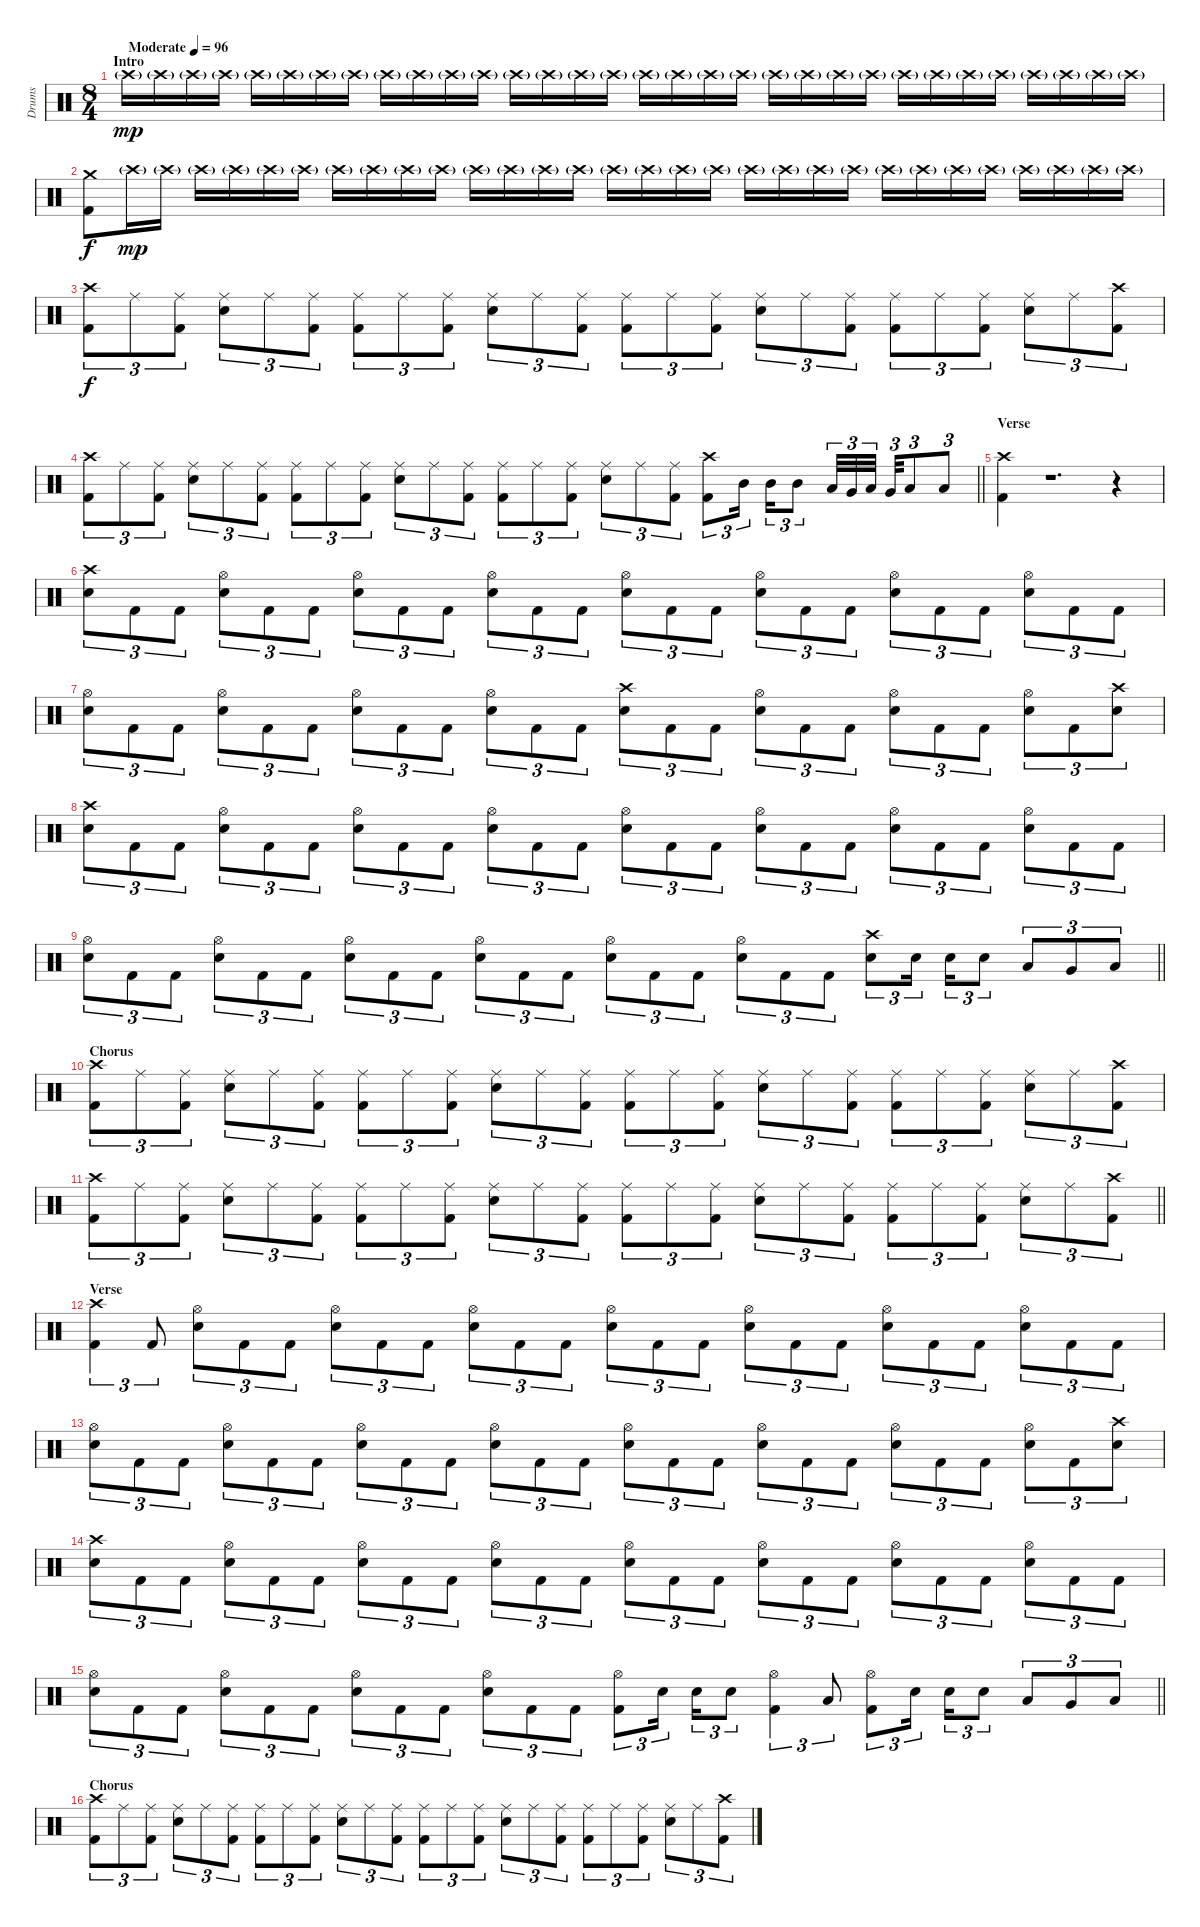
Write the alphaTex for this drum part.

\track ("Drums" "Drums") {instrument percussion}
\staff {score}
\articulation defaults
\ts (8 4)
\section ("" "Intro")
\tempo (96 "Moderate")
\clef neutral
\ks c "Crash high (hit)"{g}.16{dy mp} "Crash high (hit)"{g}.16 "Crash high (hit)"{g}.16 "Crash high (hit)"{g}.16 "Crash high (hit)"{g}.16 "Crash high (hit)"{g}.16 "Crash high (hit)"{g}.16 "Crash high (hit)"{g}.16 "Crash high (hit)"{g}.16 "Crash high (hit)"{g}.16 "Crash high (hit)"{g}.16 "Crash high (hit)"{g}.16 "Crash high (hit)"{g}.16 "Crash high (hit)"{g}.16 "Crash high (hit)"{g}.16 "Crash high (hit)"{g}.16 "Crash high (hit)"{g}.16 "Crash high (hit)"{g}.16 "Crash high (hit)"{g}.16 "Crash high (hit)"{g}.16 "Crash high (hit)"{g}.16 "Crash high (hit)"{g}.16 "Crash high (hit)"{g}.16 "Crash high (hit)"{g}.16 "Crash high (hit)"{g}.16 "Crash high (hit)"{g}.16 "Crash high (hit)"{g}.16 "Crash high (hit)"{g}.16 "Crash high (hit)"{g}.16 "Crash high (hit)"{g}.16 "Crash high (hit)"{g}.16 "Crash high (hit)"{g}.16
|
("Crash medium (hit)" "Kick (hit) 2").8{dy f} "Crash high (hit)"{g}.16{dy mp} "Crash high (hit)"{g}.16 "Crash high (hit)"{g}.16 "Crash high (hit)"{g}.16 "Crash high (hit)"{g}.16 "Crash high (hit)"{g}.16 "Crash high (hit)"{g}.16 "Crash high (hit)"{g}.16 "Crash high (hit)"{g}.16 "Crash high (hit)"{g}.16 "Crash high (hit)"{g}.16 "Crash high (hit)"{g}.16 "Crash high (hit)"{g}.16 "Crash high (hit)"{g}.16 "Crash high (hit)"{g}.16 "Crash high (hit)"{g}.16 "Crash high (hit)"{g}.16 "Crash high (hit)"{g}.16 "Crash high (hit)"{g}.16 "Crash high (hit)"{g}.16 "Crash high (hit)"{g}.16 "Crash high (hit)"{g}.16 "Crash high (hit)"{g}.16 "Crash high (hit)"{g}.16 "Crash high (hit)"{g}.16 "Crash high (hit)"{g}.16 "Crash high (hit)"{g}.16 "Crash high (hit)"{g}.16 "Crash high (hit)"{g}.16 "Crash high (hit)"{g}.16 |
("Crash high (hit)" "Kick (hit) 2").8{tu (3 2) dy f} "Ride (middle)".8{tu (3 2)} ("Ride (middle)" "Kick (hit) 2").8{tu (3 2)} ("Ride (middle)" "Snare (hit) 2").8{tu (3 2)} "Ride (middle)".8{tu (3 2)} ("Ride (middle)" "Kick (hit) 2").8{tu (3 2)} ("Ride (middle)" "Kick (hit) 2").8{tu (3 2)} "Ride (middle)".8{tu (3 2)} ("Ride (middle)" "Kick (hit) 2").8{tu (3 2)} ("Ride (middle)" "Snare (hit) 2").8{tu (3 2)} "Ride (middle)".8{tu (3 2)} ("Ride (middle)" "Kick (hit) 2").8{tu (3 2)} ("Ride (middle)" "Kick (hit) 2").8{tu (3 2)} "Ride (middle)".8{tu (3 2)} ("Ride (middle)" "Kick (hit) 2").8{tu (3 2)} ("Ride (middle)" "Snare (hit) 2").8{tu (3 2)} "Ride (middle)".8{tu (3 2)} ("Ride (middle)" "Kick (hit) 2").8{tu (3 2)} ("Ride (middle)" "Kick (hit) 2").8{tu (3 2)} "Ride (middle)".8{tu (3 2)} ("Ride (middle)" "Kick (hit) 2").8{tu (3 2)} ("Ride (middle)" "Snare (hit) 2").8{tu (3 2)} "Ride (middle)".8{tu (3 2)} ("Crash high (hit)" "Kick (hit) 2").8{tu (3 2)} |
\barLineRight lightlight
("Crash high (hit)" "Kick (hit) 2").8{tu (3 2)} "Ride (middle)".8{tu (3 2)} ("Ride (middle)" "Kick (hit) 2").8{tu (3 2)} ("Ride (middle)" "Snare (hit) 2").8{tu (3 2)} "Ride (middle)".8{tu (3 2)} ("Ride (middle)" "Kick (hit) 2").8{tu (3 2)} ("Ride (middle)" "Kick (hit) 2").8{tu (3 2)} "Ride (middle)".8{tu (3 2)} ("Ride (middle)" "Kick (hit) 2").8{tu (3 2)} ("Ride (middle)" "Snare (hit) 2").8{tu (3 2)} "Ride (middle)".8{tu (3 2)} ("Ride (middle)" "Kick (hit) 2").8{tu (3 2)} ("Ride (middle)" "Kick (hit) 2").8{tu (3 2)} "Ride (middle)".8{tu (3 2)} ("Ride (middle)" "Kick (hit) 2").8{tu (3 2)} ("Ride (middle)" "Snare (hit) 2").8{tu (3 2)} "Ride (middle)".8{tu (3 2)} ("Ride (middle)" "Kick (hit) 2").8{tu (3 2)} ("Crash high (hit)" "Kick (hit) 2").8{tu (3 2)} "Mid Tom (hit)".16{tu (3 2) beam splitsecondary} "Mid Tom (hit)".16{tu (3 2)} "Mid Tom (hit)".8{tu (3 2)} "Low Tom (hit)".32{tu (3 2)} "Very Low Tom (hit)".32{tu (3 2)} "Low Tom (hit)".32{tu (3 2) beam splitsecondary} "Very Low Tom (hit)".32{tu (3 2)} "Low Tom (hit)".8{tu (3 2)} "Low Floor Tom (hit)".8{tu (3 2)} |
\section ("" "Verse")
("Crash high (hit)" "Kick (hit) 2").4 r.1{d} r.4 |
("Crash high (hit)" "Snare (hit) 2").8{tu (3 2)} "Kick (hit) 2".8{tu (3 2)} "Kick (hit) 2".8{tu (3 2)} ("Hi-Hat (open)" "Snare (hit) 2").8{tu (3 2)} "Kick (hit) 2".8{tu (3 2)} "Kick (hit) 2".8{tu (3 2)} ("Hi-Hat (open)" "Snare (hit) 2").8{tu (3 2)} "Kick (hit) 2".8{tu (3 2)} "Kick (hit) 2".8{tu (3 2)} ("Hi-Hat (open)" "Snare (hit) 2").8{tu (3 2)} "Kick (hit) 2".8{tu (3 2)} "Kick (hit) 2".8{tu (3 2)} ("Hi-Hat (open)" "Snare (hit) 2").8{tu (3 2)} "Kick (hit) 2".8{tu (3 2)} "Kick (hit) 2".8{tu (3 2)} ("Hi-Hat (open)" "Snare (hit) 2").8{tu (3 2)} "Kick (hit) 2".8{tu (3 2)} "Kick (hit) 2".8{tu (3 2)} ("Hi-Hat (open)" "Snare (hit) 2").8{tu (3 2)} "Kick (hit) 2".8{tu (3 2)} "Kick (hit) 2".8{tu (3 2)} ("Hi-Hat (open)" "Snare (hit) 2").8{tu (3 2)} "Kick (hit) 2".8{tu (3 2)} "Kick (hit) 2".8{tu (3 2)} |
("Hi-Hat (open)" "Snare (hit) 2").8{tu (3 2)} "Kick (hit) 2".8{tu (3 2)} "Kick (hit) 2".8{tu (3 2)} ("Hi-Hat (open)" "Snare (hit) 2").8{tu (3 2)} "Kick (hit) 2".8{tu (3 2)} "Kick (hit) 2".8{tu (3 2)} ("Hi-Hat (open)" "Snare (hit) 2").8{tu (3 2)} "Kick (hit) 2".8{tu (3 2)} "Kick (hit) 2".8{tu (3 2)} ("Hi-Hat (open)" "Snare (hit) 2").8{tu (3 2)} "Kick (hit) 2".8{tu (3 2)} "Kick (hit) 2".8{tu (3 2)} ("Crash high (hit)" "Snare (hit) 2").8{tu (3 2)} "Kick (hit) 2".8{tu (3 2)} "Kick (hit) 2".8{tu (3 2)} ("Hi-Hat (open)" "Snare (hit) 2").8{tu (3 2)} "Kick (hit) 2".8{tu (3 2)} "Kick (hit) 2".8{tu (3 2)} ("Hi-Hat (open)" "Snare (hit) 2").8{tu (3 2)} "Kick (hit) 2".8{tu (3 2)} "Kick (hit) 2".8{tu (3 2)} ("Hi-Hat (open)" "Snare (hit) 2").8{tu (3 2)} "Kick (hit) 2".8{tu (3 2)} ("Crash high (hit)" "Snare (hit) 2").8{tu (3 2)} |
("Crash high (hit)" "Snare (hit) 2").8{tu (3 2)} "Kick (hit) 2".8{tu (3 2)} "Kick (hit) 2".8{tu (3 2)} ("Hi-Hat (open)" "Snare (hit) 2").8{tu (3 2)} "Kick (hit) 2".8{tu (3 2)} "Kick (hit) 2".8{tu (3 2)} ("Hi-Hat (open)" "Snare (hit) 2").8{tu (3 2)} "Kick (hit) 2".8{tu (3 2)} "Kick (hit) 2".8{tu (3 2)} ("Hi-Hat (open)" "Snare (hit) 2").8{tu (3 2)} "Kick (hit) 2".8{tu (3 2)} "Kick (hit) 2".8{tu (3 2)} ("Hi-Hat (open)" "Snare (hit) 2").8{tu (3 2)} "Kick (hit) 2".8{tu (3 2)} "Kick (hit) 2".8{tu (3 2)} ("Hi-Hat (open)" "Snare (hit) 2").8{tu (3 2)} "Kick (hit) 2".8{tu (3 2)} "Kick (hit) 2".8{tu (3 2)} ("Hi-Hat (open)" "Snare (hit) 2").8{tu (3 2)} "Kick (hit) 2".8{tu (3 2)} "Kick (hit) 2".8{tu (3 2)} ("Hi-Hat (open)" "Snare (hit) 2").8{tu (3 2)} "Kick (hit) 2".8{tu (3 2)} "Kick (hit) 2".8{tu (3 2)} |
\barLineRight lightlight
("Hi-Hat (open)" "Snare (hit) 2").8{tu (3 2)} "Kick (hit) 2".8{tu (3 2)} "Kick (hit) 2".8{tu (3 2)} ("Hi-Hat (open)" "Snare (hit) 2").8{tu (3 2)} "Kick (hit) 2".8{tu (3 2)} "Kick (hit) 2".8{tu (3 2)} ("Hi-Hat (open)" "Snare (hit) 2").8{tu (3 2)} "Kick (hit) 2".8{tu (3 2)} "Kick (hit) 2".8{tu (3 2)} ("Hi-Hat (open)" "Snare (hit) 2").8{tu (3 2)} "Kick (hit) 2".8{tu (3 2)} "Kick (hit) 2".8{tu (3 2)} ("Hi-Hat (open)" "Snare (hit) 2").8{tu (3 2)} "Kick (hit) 2".8{tu (3 2)} "Kick (hit) 2".8{tu (3 2)} ("Hi-Hat (open)" "Snare (hit) 2").8{tu (3 2)} "Kick (hit) 2".8{tu (3 2)} "Kick (hit) 2".8{tu (3 2)} ("Crash high (hit)" "Snare (hit) 2").8{tu (3 2)} "Snare (hit) 2".16{tu (3 2) beam splitsecondary} "Snare (hit) 2".16{tu (3 2)} "Snare (hit) 2".8{tu (3 2)} "Low Tom (hit)".8{tu (3 2)} "Very Low Tom (hit)".8{tu (3 2)} "Low Floor Tom (hit)".8{tu (3 2)} |
\section ("" "Chorus")
("Crash high (hit)" "Kick (hit) 2").8{tu (3 2)} "Ride (middle)".8{tu (3 2)} ("Ride (middle)" "Kick (hit) 2").8{tu (3 2)} ("Ride (middle)" "Snare (hit) 2").8{tu (3 2)} "Ride (middle)".8{tu (3 2)} ("Ride (middle)" "Kick (hit) 2").8{tu (3 2)} ("Ride (middle)" "Kick (hit) 2").8{tu (3 2)} "Ride (middle)".8{tu (3 2)} ("Ride (middle)" "Kick (hit) 2").8{tu (3 2)} ("Ride (middle)" "Snare (hit) 2").8{tu (3 2)} "Ride (middle)".8{tu (3 2)} ("Ride (middle)" "Kick (hit) 2").8{tu (3 2)} ("Ride (middle)" "Kick (hit) 2").8{tu (3 2)} "Ride (middle)".8{tu (3 2)} ("Ride (middle)" "Kick (hit) 2").8{tu (3 2)} ("Ride (middle)" "Snare (hit) 2").8{tu (3 2)} "Ride (middle)".8{tu (3 2)} ("Ride (middle)" "Kick (hit) 2").8{tu (3 2)} ("Ride (middle)" "Kick (hit) 2").8{tu (3 2)} "Ride (middle)".8{tu (3 2)} ("Ride (middle)" "Kick (hit) 2").8{tu (3 2)} ("Ride (middle)" "Snare (hit) 2").8{tu (3 2)} "Ride (middle)".8{tu (3 2)} ("Crash high (hit)" "Kick (hit) 2").8{tu (3 2)} |
\barLineRight lightlight
("Crash high (hit)" "Kick (hit) 2").8{tu (3 2)} "Ride (middle)".8{tu (3 2)} ("Ride (middle)" "Kick (hit) 2").8{tu (3 2)} ("Ride (middle)" "Snare (hit) 2").8{tu (3 2)} "Ride (middle)".8{tu (3 2)} ("Ride (middle)" "Kick (hit) 2").8{tu (3 2)} ("Ride (middle)" "Kick (hit) 2").8{tu (3 2)} "Ride (middle)".8{tu (3 2)} ("Ride (middle)" "Kick (hit) 2").8{tu (3 2)} ("Ride (middle)" "Snare (hit) 2").8{tu (3 2)} "Ride (middle)".8{tu (3 2)} ("Ride (middle)" "Kick (hit) 2").8{tu (3 2)} ("Ride (middle)" "Kick (hit) 2").8{tu (3 2)} "Ride (middle)".8{tu (3 2)} ("Ride (middle)" "Kick (hit) 2").8{tu (3 2)} ("Ride (middle)" "Snare (hit) 2").8{tu (3 2)} "Ride (middle)".8{tu (3 2)} ("Ride (middle)" "Kick (hit) 2").8{tu (3 2)} ("Ride (middle)" "Kick (hit) 2").8{tu (3 2)} "Ride (middle)".8{tu (3 2)} ("Ride (middle)" "Kick (hit) 2").8{tu (3 2)} ("Ride (middle)" "Snare (hit) 2").8{tu (3 2)} "Ride (middle)".8{tu (3 2)} ("Crash high (hit)" "Kick (hit) 2").8{tu (3 2)} |
\section ("" "Verse")
("Crash high (hit)" "Kick (hit) 2").4{tu (3 2)} "Kick (hit) 2".8{tu (3 2)} ("Hi-Hat (open)" "Snare (hit) 2").8{tu (3 2)} "Kick (hit) 2".8{tu (3 2)} "Kick (hit) 2".8{tu (3 2)} ("Hi-Hat (open)" "Snare (hit) 2").8{tu (3 2)} "Kick (hit) 2".8{tu (3 2)} "Kick (hit) 2".8{tu (3 2)} ("Hi-Hat (open)" "Snare (hit) 2").8{tu (3 2)} "Kick (hit) 2".8{tu (3 2)} "Kick (hit) 2".8{tu (3 2)} ("Hi-Hat (open)" "Snare (hit) 2").8{tu (3 2)} "Kick (hit) 2".8{tu (3 2)} "Kick (hit) 2".8{tu (3 2)} ("Hi-Hat (open)" "Snare (hit) 2").8{tu (3 2)} "Kick (hit) 2".8{tu (3 2)} "Kick (hit) 2".8{tu (3 2)} ("Hi-Hat (open)" "Snare (hit) 2").8{tu (3 2)} "Kick (hit) 2".8{tu (3 2)} "Kick (hit) 2".8{tu (3 2)} ("Hi-Hat (open)" "Snare (hit) 2").8{tu (3 2)} "Kick (hit) 2".8{tu (3 2)} "Kick (hit) 2".8{tu (3 2)} |
("Hi-Hat (open)" "Snare (hit) 2").8{tu (3 2)} "Kick (hit) 2".8{tu (3 2)} "Kick (hit) 2".8{tu (3 2)} ("Hi-Hat (open)" "Snare (hit) 2").8{tu (3 2)} "Kick (hit) 2".8{tu (3 2)} "Kick (hit) 2".8{tu (3 2)} ("Hi-Hat (open)" "Snare (hit) 2").8{tu (3 2)} "Kick (hit) 2".8{tu (3 2)} "Kick (hit) 2".8{tu (3 2)} ("Hi-Hat (open)" "Snare (hit) 2").8{tu (3 2)} "Kick (hit) 2".8{tu (3 2)} "Kick (hit) 2".8{tu (3 2)} ("Hi-Hat (open)" "Snare (hit) 2").8{tu (3 2)} "Kick (hit) 2".8{tu (3 2)} "Kick (hit) 2".8{tu (3 2)} ("Hi-Hat (open)" "Snare (hit) 2").8{tu (3 2)} "Kick (hit) 2".8{tu (3 2)} "Kick (hit) 2".8{tu (3 2)} ("Hi-Hat (open)" "Snare (hit) 2").8{tu (3 2)} "Kick (hit) 2".8{tu (3 2)} "Kick (hit) 2".8{tu (3 2)} ("Hi-Hat (open)" "Snare (hit) 2").8{tu (3 2)} "Kick (hit) 2".8{tu (3 2)} ("Crash high (hit)" "Snare (hit) 2").8{tu (3 2)} |
("Crash high (hit)" "Snare (hit) 2").8{tu (3 2)} "Kick (hit) 2".8{tu (3 2)} "Kick (hit) 2".8{tu (3 2)} ("Hi-Hat (open)" "Snare (hit) 2").8{tu (3 2)} "Kick (hit) 2".8{tu (3 2)} "Kick (hit) 2".8{tu (3 2)} ("Hi-Hat (open)" "Snare (hit) 2").8{tu (3 2)} "Kick (hit) 2".8{tu (3 2)} "Kick (hit) 2".8{tu (3 2)} ("Hi-Hat (open)" "Snare (hit) 2").8{tu (3 2)} "Kick (hit) 2".8{tu (3 2)} "Kick (hit) 2".8{tu (3 2)} ("Hi-Hat (open)" "Snare (hit) 2").8{tu (3 2)} "Kick (hit) 2".8{tu (3 2)} "Kick (hit) 2".8{tu (3 2)} ("Hi-Hat (open)" "Snare (hit) 2").8{tu (3 2)} "Kick (hit) 2".8{tu (3 2)} "Kick (hit) 2".8{tu (3 2)} ("Hi-Hat (open)" "Snare (hit) 2").8{tu (3 2)} "Kick (hit) 2".8{tu (3 2)} "Kick (hit) 2".8{tu (3 2)} ("Hi-Hat (open)" "Snare (hit) 2").8{tu (3 2)} "Kick (hit) 2".8{tu (3 2)} "Kick (hit) 2".8{tu (3 2)} |
\barLineRight lightlight
("Hi-Hat (open)" "Snare (hit) 2").8{tu (3 2)} "Kick (hit) 2".8{tu (3 2)} "Kick (hit) 2".8{tu (3 2)} ("Hi-Hat (open)" "Snare (hit) 2").8{tu (3 2)} "Kick (hit) 2".8{tu (3 2)} "Kick (hit) 2".8{tu (3 2)} ("Hi-Hat (open)" "Snare (hit) 2").8{tu (3 2)} "Kick (hit) 2".8{tu (3 2)} "Kick (hit) 2".8{tu (3 2)} ("Hi-Hat (open)" "Snare (hit) 2").8{tu (3 2)} "Kick (hit) 2".8{tu (3 2)} "Kick (hit) 2".8{tu (3 2)} ("Hi-Hat (open)" "Kick (hit) 2").8{tu (3 2)} "Snare (hit) 2".16{tu (3 2) beam splitsecondary} "Snare (hit) 2".16{tu (3 2)} "Snare (hit) 2".8{tu (3 2)} ("Hi-Hat (open)" "Kick (hit) 2").4{tu (3 2)} "Low Floor Tom (hit)".8{tu (3 2)} ("Hi-Hat (open)" "Kick (hit) 2").8{tu (3 2)} "Snare (hit) 2".16{tu (3 2) beam splitsecondary} "Snare (hit) 2".16{tu (3 2)} "Snare (hit) 2".8{tu (3 2)} "Low Tom (hit)".8{tu (3 2)} "Very Low Tom (hit)".8{tu (3 2)} "Low Floor Tom (hit)".8{tu (3 2)} |
\section ("" "Chorus")
("Crash high (hit)" "Kick (hit) 2").8{tu (3 2)} "Ride (middle)".8{tu (3 2)} ("Ride (middle)" "Kick (hit) 2").8{tu (3 2)} ("Ride (middle)" "Snare (hit) 2").8{tu (3 2)} "Ride (middle)".8{tu (3 2)} ("Ride (middle)" "Kick (hit) 2").8{tu (3 2)} ("Ride (middle)" "Kick (hit) 2").8{tu (3 2)} "Ride (middle)".8{tu (3 2)} ("Ride (middle)" "Kick (hit) 2").8{tu (3 2)} ("Ride (middle)" "Snare (hit) 2").8{tu (3 2)} "Ride (middle)".8{tu (3 2)} ("Ride (middle)" "Kick (hit) 2").8{tu (3 2)} ("Ride (middle)" "Kick (hit) 2").8{tu (3 2)} "Ride (middle)".8{tu (3 2)} ("Ride (middle)" "Kick (hit) 2").8{tu (3 2)} ("Ride (middle)" "Snare (hit) 2").8{tu (3 2)} "Ride (middle)".8{tu (3 2)} ("Ride (middle)" "Kick (hit) 2").8{tu (3 2)} ("Ride (middle)" "Kick (hit) 2").8{tu (3 2)} "Ride (middle)".8{tu (3 2)} ("Ride (middle)" "Kick (hit) 2").8{tu (3 2)} ("Ride (middle)" "Snare (hit) 2").8{tu (3 2)} "Ride (middle)".8{tu (3 2)} ("Crash high (hit)" "Kick (hit) 2").8{tu (3 2)}
